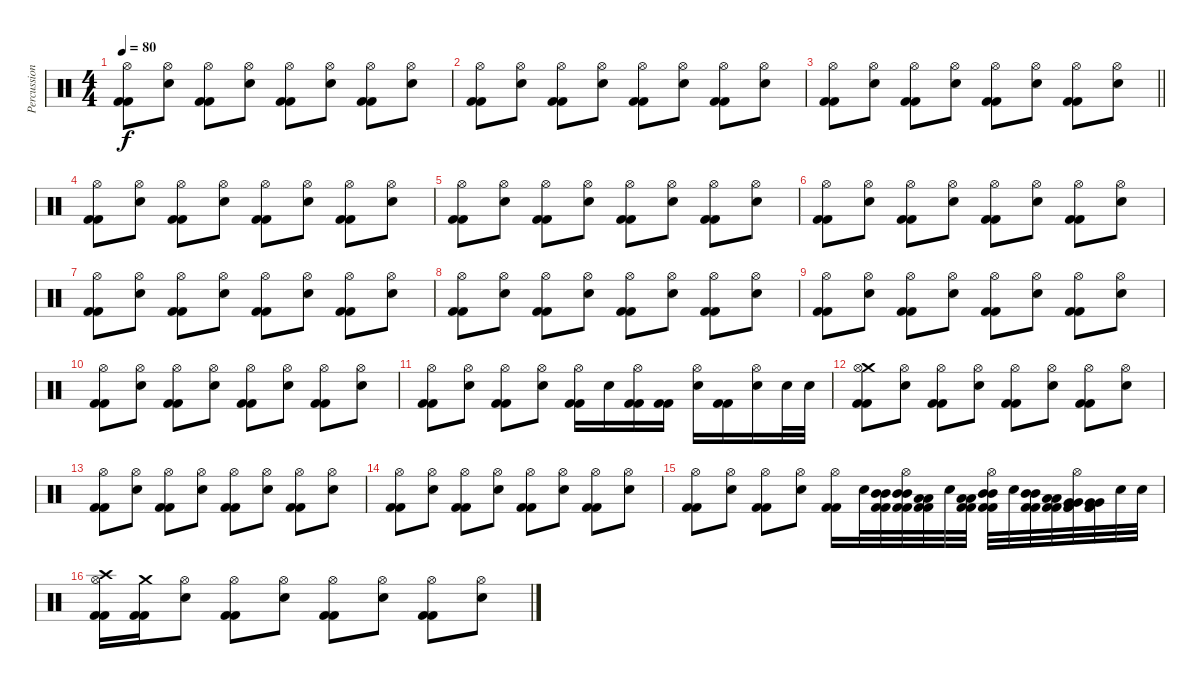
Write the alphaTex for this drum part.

\track ("Percussion" "Percussion") {instrument percussion}
\staff {score}
\articulation defaults
\ts (4 4)
\tempo 80
\clef neutral
\ks c
("Hi-Hat (open)" "Kick (hit) 2" "Kick (hit) 2").8{dy f} ("Hi-Hat (open)" "Electric Snare (hit)").8 ("Hi-Hat (open)" "Kick (hit) 2" "Kick (hit) 2").8 ("Hi-Hat (open)" "Electric Snare (hit)").8 ("Hi-Hat (open)" "Kick (hit) 2" "Kick (hit) 2").8 ("Hi-Hat (open)" "Electric Snare (hit)").8 ("Hi-Hat (open)" "Kick (hit) 2" "Kick (hit) 2").8 ("Hi-Hat (open)" "Electric Snare (hit)").8 |
("Hi-Hat (open)" "Kick (hit) 2" "Kick (hit) 2").8 ("Hi-Hat (open)" "Electric Snare (hit)").8 ("Hi-Hat (open)" "Kick (hit) 2" "Kick (hit) 2").8 ("Hi-Hat (open)" "Electric Snare (hit)").8 ("Hi-Hat (open)" "Kick (hit) 2" "Kick (hit) 2").8 ("Hi-Hat (open)" "Electric Snare (hit)").8 ("Hi-Hat (open)" "Kick (hit) 2" "Kick (hit) 2").8 ("Hi-Hat (open)" "Electric Snare (hit)").8 |
\barLineRight lightlight
("Hi-Hat (open)" "Kick (hit) 2" "Kick (hit) 2").8 ("Hi-Hat (open)" "Electric Snare (hit)").8 ("Hi-Hat (open)" "Kick (hit) 2" "Kick (hit) 2").8 ("Hi-Hat (open)" "Electric Snare (hit)").8 ("Hi-Hat (open)" "Kick (hit) 2" "Kick (hit) 2").8 ("Hi-Hat (open)" "Electric Snare (hit)").8 ("Hi-Hat (open)" "Kick (hit) 2" "Kick (hit) 2").8 ("Hi-Hat (open)" "Electric Snare (hit)").8 |
\section ("" "")
("Hi-Hat (open)" "Kick (hit) 2" "Kick (hit) 2").8 ("Hi-Hat (open)" "Electric Snare (hit)").8 ("Hi-Hat (open)" "Kick (hit) 2" "Kick (hit) 2").8 ("Hi-Hat (open)" "Electric Snare (hit)").8 ("Hi-Hat (open)" "Kick (hit) 2" "Kick (hit) 2").8 ("Hi-Hat (open)" "Electric Snare (hit)").8 ("Hi-Hat (open)" "Kick (hit) 2" "Kick (hit) 2").8 ("Hi-Hat (open)" "Electric Snare (hit)").8 |
("Hi-Hat (open)" "Kick (hit) 2" "Kick (hit) 2").8 ("Hi-Hat (open)" "Electric Snare (hit)").8 ("Hi-Hat (open)" "Kick (hit) 2" "Kick (hit) 2").8 ("Hi-Hat (open)" "Electric Snare (hit)").8 ("Hi-Hat (open)" "Kick (hit) 2" "Kick (hit) 2").8 ("Hi-Hat (open)" "Electric Snare (hit)").8 ("Hi-Hat (open)" "Kick (hit) 2" "Kick (hit) 2").8 ("Hi-Hat (open)" "Electric Snare (hit)").8 |
("Hi-Hat (open)" "Kick (hit) 2" "Kick (hit) 2").8 ("Hi-Hat (open)" "Electric Snare (hit)").8 ("Hi-Hat (open)" "Kick (hit) 2" "Kick (hit) 2").8 ("Hi-Hat (open)" "Electric Snare (hit)").8 ("Hi-Hat (open)" "Kick (hit) 2" "Kick (hit) 2").8 ("Hi-Hat (open)" "Electric Snare (hit)").8 ("Hi-Hat (open)" "Kick (hit) 2" "Kick (hit) 2").8 ("Hi-Hat (open)" "Electric Snare (hit)").8 |
("Hi-Hat (open)" "Kick (hit) 2" "Kick (hit) 2").8 ("Hi-Hat (open)" "Electric Snare (hit)").8 ("Hi-Hat (open)" "Kick (hit) 2" "Kick (hit) 2").8 ("Hi-Hat (open)" "Electric Snare (hit)").8 ("Hi-Hat (open)" "Kick (hit) 2" "Kick (hit) 2").8 ("Hi-Hat (open)" "Electric Snare (hit)").8 ("Hi-Hat (open)" "Kick (hit) 2" "Kick (hit) 2").8 ("Hi-Hat (open)" "Electric Snare (hit)").8 |
("Hi-Hat (open)" "Kick (hit) 2" "Kick (hit) 2").8 ("Hi-Hat (open)" "Electric Snare (hit)").8 ("Hi-Hat (open)" "Kick (hit) 2" "Kick (hit) 2").8 ("Hi-Hat (open)" "Electric Snare (hit)").8 ("Hi-Hat (open)" "Kick (hit) 2" "Kick (hit) 2").8 ("Hi-Hat (open)" "Electric Snare (hit)").8 ("Hi-Hat (open)" "Kick (hit) 2" "Kick (hit) 2").8 ("Hi-Hat (open)" "Electric Snare (hit)").8 |
("Hi-Hat (open)" "Kick (hit) 2" "Kick (hit) 2").8 ("Hi-Hat (open)" "Electric Snare (hit)").8 ("Hi-Hat (open)" "Kick (hit) 2" "Kick (hit) 2").8 ("Hi-Hat (open)" "Electric Snare (hit)").8 ("Hi-Hat (open)" "Kick (hit) 2" "Kick (hit) 2").8 ("Hi-Hat (open)" "Electric Snare (hit)").8 ("Hi-Hat (open)" "Kick (hit) 2" "Kick (hit) 2").8 ("Hi-Hat (open)" "Electric Snare (hit)").8 |
("Hi-Hat (open)" "Kick (hit) 2" "Kick (hit) 2").8 ("Hi-Hat (open)" "Electric Snare (hit)").8 ("Hi-Hat (open)" "Kick (hit) 2" "Kick (hit) 2").8 ("Hi-Hat (open)" "Electric Snare (hit)").8 ("Hi-Hat (open)" "Kick (hit) 2" "Kick (hit) 2").8 ("Hi-Hat (open)" "Electric Snare (hit)").8 ("Hi-Hat (open)" "Kick (hit) 2" "Kick (hit) 2").8 ("Hi-Hat (open)" "Electric Snare (hit)").8 |
("Hi-Hat (open)" "Kick (hit) 2" "Kick (hit) 2").8 ("Hi-Hat (open)" "Electric Snare (hit)").8 ("Hi-Hat (open)" "Kick (hit) 2" "Kick (hit) 2").8 ("Hi-Hat (open)" "Electric Snare (hit)").8 ("Hi-Hat (open)" "Kick (hit) 2" "Kick (hit) 2").16 "Electric Snare (hit)".16 ("Hi-Hat (open)" "Kick (hit) 2" "Kick (hit) 2").16 ("Kick (hit) 2" "Kick (hit) 2").16 ("Hi-Hat (open)" "Electric Snare (hit)").16 ("Kick (hit) 2" "Kick (hit) 2").16 ("Hi-Hat (open)" "Electric Snare (hit)").16 "Electric Snare (hit)".32 "Electric Snare (hit)".32 |
("Crash medium (hit)" "Hi-Hat (open)" "Kick (hit) 2" "Kick (hit) 2").8 ("Hi-Hat (open)" "Electric Snare (hit)").8 ("Hi-Hat (open)" "Kick (hit) 2" "Kick (hit) 2").8 ("Hi-Hat (open)" "Electric Snare (hit)").8 ("Hi-Hat (open)" "Kick (hit) 2" "Kick (hit) 2").8 ("Hi-Hat (open)" "Electric Snare (hit)").8 ("Hi-Hat (open)" "Kick (hit) 2" "Kick (hit) 2").8 ("Hi-Hat (open)" "Electric Snare (hit)").8 |
("Hi-Hat (open)" "Kick (hit) 2" "Kick (hit) 2").8 ("Hi-Hat (open)" "Electric Snare (hit)").8 ("Hi-Hat (open)" "Kick (hit) 2" "Kick (hit) 2").8 ("Hi-Hat (open)" "Electric Snare (hit)").8 ("Hi-Hat (open)" "Kick (hit) 2" "Kick (hit) 2").8 ("Hi-Hat (open)" "Electric Snare (hit)").8 ("Hi-Hat (open)" "Kick (hit) 2" "Kick (hit) 2").8 ("Hi-Hat (open)" "Electric Snare (hit)").8 |
("Hi-Hat (open)" "Kick (hit) 2" "Kick (hit) 2").8 ("Hi-Hat (open)" "Electric Snare (hit)").8 ("Hi-Hat (open)" "Kick (hit) 2" "Kick (hit) 2").8 ("Hi-Hat (open)" "Electric Snare (hit)").8 ("Hi-Hat (open)" "Kick (hit) 2" "Kick (hit) 2").8 ("Hi-Hat (open)" "Electric Snare (hit)").8 ("Hi-Hat (open)" "Kick (hit) 2" "Kick (hit) 2").8 ("Hi-Hat (open)" "Electric Snare (hit)").8 |
("Hi-Hat (open)" "Kick (hit) 2" "Kick (hit) 2").8 ("Hi-Hat (open)" "Electric Snare (hit)").8 ("Hi-Hat (open)" "Kick (hit) 2" "Kick (hit) 2").8 ("Hi-Hat (open)" "Electric Snare (hit)").8 ("Hi-Hat (open)" "Kick (hit) 2" "Kick (hit) 2").16 "Electric Snare (hit)".32 ("Mid Tom (hit)" "Mid Tom (hit)" "Kick (hit) 2" "Kick (hit) 2").32 ("Mid Tom (hit)" "Mid Tom (hit)" "Hi-Hat (open)" "Kick (hit) 2" "Kick (hit) 2").32 ("Low Tom (hit)" "Low Tom (hit)" "Kick (hit) 2" "Kick (hit) 2").32 "Electric Snare (hit)".32 ("Low Tom (hit)" "Low Tom (hit)" "Kick (hit) 2" "Kick (hit) 2").32 ("Mid Tom (hit)" "Mid Tom (hit)" "Hi-Hat (open)" "Kick (hit) 2" "Kick (hit) 2").32 "Electric Snare (hit)".32 ("Mid Tom (hit)" "Mid Tom (hit)" "Kick (hit) 2" "Kick (hit) 2").32 ("Low Tom (hit)" "Low Tom (hit)" "Kick (hit) 2" "Kick (hit) 2").32 ("Hi-Hat (open)" "Very Low Tom (hit)" "Very Low Tom (hit)" "Kick (hit) 2" "Kick (hit) 2").32 ("Very Low Tom (hit)" "Very Low Tom (hit)" "Kick (hit) 2" "Kick (hit) 2").32 "Electric Snare (hit)".32 "Electric Snare (hit)".32 |
("Crash high (hit)" "Hi-Hat (open)" "Kick (hit) 2" "Kick (hit) 2").16 ("Crash medium (hit)" "Kick (hit) 2" "Kick (hit) 2").16 ("Hi-Hat (open)" "Electric Snare (hit)").8 ("Hi-Hat (open)" "Kick (hit) 2" "Kick (hit) 2").8 ("Hi-Hat (open)" "Electric Snare (hit)").8 ("Hi-Hat (open)" "Kick (hit) 2" "Kick (hit) 2").8 ("Hi-Hat (open)" "Electric Snare (hit)").8 ("Hi-Hat (open)" "Kick (hit) 2" "Kick (hit) 2").8 ("Hi-Hat (open)" "Electric Snare (hit)").8
